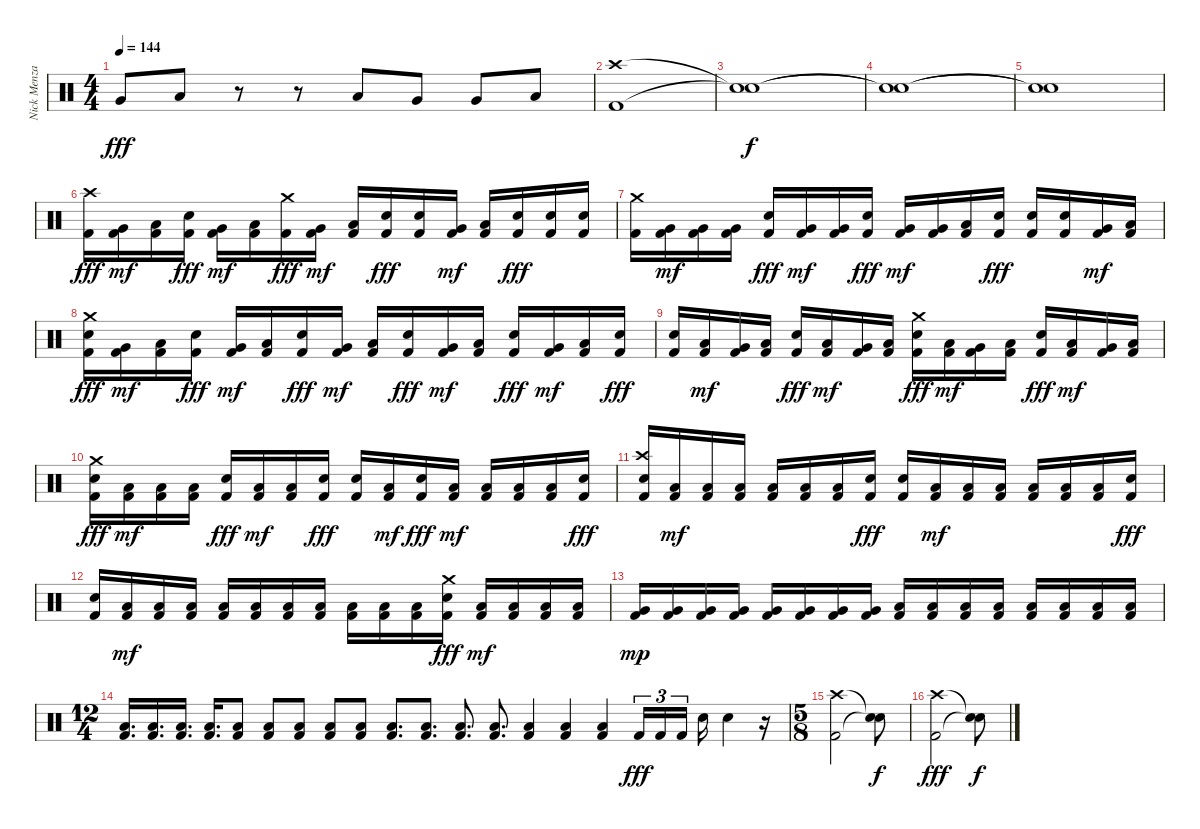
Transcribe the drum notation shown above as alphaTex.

\track ("Nick Menza" "Nick Menza") {instrument percussion}
\staff {score}
\articulation defaults
\ts (4 4)
\tempo 144
\clef neutral
\ks c "Very Low Tom (hit)".8{dy fff} "Low Floor Tom (hit)".8
r.8 r.8 "Low Tom (hit)".8 "Very Low Tom (hit)".8 "Very Low Tom (hit)".8 "Low Floor Tom (hit)".8 |
("Kick (hit) 2" "Crash high (hit)").1 |
("Snare (hit)"{t} "Snare (hit)"{t}).1{dy f} |
("Snare (hit)"{t} "Snare (hit)"{t}).1 |
("Snare (hit)"{t} "Snare (hit)"{t}).1 |
("Kick (hit) 2" "Crash high (hit)").16{dy fff} ("Kick (hit) 2" "Very Low Tom (hit)").16{dy mf} ("Kick (hit) 2" "Low Floor Tom (hit)").16 ("Kick (hit) 2" "Electric Snare (hit)").16{dy fff} ("Kick (hit) 2" "Very Low Tom (hit)").16{dy mf} ("Kick (hit) 2" "Low Floor Tom (hit)").16 ("Kick (hit) 2" "Crash medium (hit)").16{dy fff} ("Kick (hit) 2" "Very Low Tom (hit)").16{dy mf} ("Kick (hit) 2" "Low Floor Tom (hit)").16 ("Kick (hit) 2" "Electric Snare (hit)").16{dy fff} ("Kick (hit) 2" "Electric Snare (hit)").16 ("Kick (hit) 2" "Very Low Tom (hit)").16{dy mf} ("Kick (hit) 2" "Low Floor Tom (hit)").16 ("Kick (hit) 2" "Electric Snare (hit)").16{dy fff} ("Kick (hit) 2" "Electric Snare (hit)").16 ("Kick (hit) 2" "Electric Snare (hit)").16 |
("Kick (hit) 2" "Crash medium (hit)").16 ("Kick (hit) 2" "Very Low Tom (hit)").16{dy mf} ("Kick (hit) 2" "Very Low Tom (hit)").16 ("Kick (hit) 2" "Very Low Tom (hit)").16 ("Kick (hit) 2" "Electric Snare (hit)").16{dy fff} ("Kick (hit) 2" "Very Low Tom (hit)").16{dy mf} ("Kick (hit) 2" "Very Low Tom (hit)").16 ("Kick (hit) 2" "Electric Snare (hit)").16{dy fff} ("Kick (hit) 2" "Very Low Tom (hit)").16{dy mf} ("Kick (hit) 2" "Very Low Tom (hit)").16 ("Kick (hit) 2" "Low Floor Tom (hit)").16 ("Kick (hit) 2" "Electric Snare (hit)").16{dy fff} ("Kick (hit) 2" "Electric Snare (hit)").16 ("Kick (hit) 2" "Electric Snare (hit)").16 ("Kick (hit) 2" "Very Low Tom (hit)").16{dy mf} ("Kick (hit) 2" "Low Floor Tom (hit)").16 |
("Kick (hit) 2" "Electric Snare (hit)" "Crash medium (hit)").16{dy fff} ("Kick (hit) 2" "Very Low Tom (hit)").16{dy mf} ("Kick (hit) 2" "Low Floor Tom (hit)").16 ("Kick (hit) 2" "Electric Snare (hit)").16{dy fff} ("Kick (hit) 2" "Very Low Tom (hit)").16{dy mf} ("Kick (hit) 2" "Low Floor Tom (hit)").16 ("Kick (hit) 2" "Electric Snare (hit)").16{dy fff} ("Kick (hit) 2" "Very Low Tom (hit)").16{dy mf} ("Kick (hit) 2" "Low Floor Tom (hit)").16 ("Kick (hit) 2" "Electric Snare (hit)").16{dy fff} ("Kick (hit) 2" "Very Low Tom (hit)").16{dy mf} ("Kick (hit) 2" "Low Floor Tom (hit)").16 ("Kick (hit) 2" "Electric Snare (hit)").16{dy fff} ("Kick (hit) 2" "Very Low Tom (hit)").16{dy mf} ("Kick (hit) 2" "Low Floor Tom (hit)").16 ("Kick (hit) 2" "Electric Snare (hit)").16{dy fff} |
("Kick (hit) 2" "Electric Snare (hit)").16 ("Kick (hit) 2" "Low Tom (hit)").16{dy mf} ("Kick (hit) 2" "Very Low Tom (hit)").16 ("Kick (hit) 2" "Low Floor Tom (hit)").16 ("Kick (hit) 2" "Electric Snare (hit)").16{dy fff} ("Kick (hit) 2" "Low Tom (hit)").16{dy mf} ("Kick (hit) 2" "Very Low Tom (hit)").16 ("Kick (hit) 2" "Low Floor Tom (hit)").16 ("Kick (hit) 2" "Electric Snare (hit)" "Crash medium (hit)").16{dy fff} ("Kick (hit) 2" "Low Tom (hit)").16{dy mf} ("Kick (hit) 2" "Very Low Tom (hit)").16 ("Kick (hit) 2" "Low Floor Tom (hit)").16 ("Kick (hit) 2" "Electric Snare (hit)").16{dy fff} ("Kick (hit) 2" "Low Tom (hit)").16{dy mf} ("Kick (hit) 2" "Very Low Tom (hit)").16 ("Kick (hit) 2" "Low Floor Tom (hit)").16 |
("Kick (hit) 2" "Electric Snare (hit)" "Crash medium (hit)").16{dy fff} ("Kick (hit) 2" "Low Floor Tom (hit)").16{dy mf} ("Kick (hit) 2" "Low Floor Tom (hit)").16 ("Kick (hit) 2" "Low Floor Tom (hit)").16 ("Kick (hit) 2" "Electric Snare (hit)").16{dy fff} ("Kick (hit) 2" "Low Floor Tom (hit)").16{dy mf} ("Kick (hit) 2" "Low Floor Tom (hit)").16 ("Kick (hit) 2" "Electric Snare (hit)").16{dy fff} ("Kick (hit) 2" "Electric Snare (hit)").16 ("Kick (hit) 2" "Low Floor Tom (hit)").16{dy mf} ("Kick (hit) 2" "Electric Snare (hit)").16{dy fff} ("Kick (hit) 2" "Low Floor Tom (hit)").16{dy mf} ("Kick (hit) 2" "Low Floor Tom (hit)").16 ("Kick (hit) 2" "Low Floor Tom (hit)").16 ("Kick (hit) 2" "Low Floor Tom (hit)").16 ("Kick (hit) 2" "Electric Snare (hit)").16{dy fff} |
("Kick (hit) 2" "Electric Snare (hit)" "Crash high (hit)").16 ("Kick (hit) 2" "Low Floor Tom (hit)").16{dy mf} ("Kick (hit) 2" "Low Floor Tom (hit)").16 ("Kick (hit) 2" "Low Floor Tom (hit)").16 ("Kick (hit) 2" "Low Floor Tom (hit)").16 ("Kick (hit) 2" "Low Floor Tom (hit)").16 ("Kick (hit) 2" "Low Floor Tom (hit)").16 ("Kick (hit) 2" "Electric Snare (hit)").16{dy fff} ("Kick (hit) 2" "Electric Snare (hit)").16 ("Kick (hit) 2" "Low Floor Tom (hit)").16{dy mf} ("Kick (hit) 2" "Low Floor Tom (hit)").16 ("Kick (hit) 2" "Low Floor Tom (hit)").16 ("Kick (hit) 2" "Low Floor Tom (hit)").16 ("Kick (hit) 2" "Low Floor Tom (hit)").16 ("Kick (hit) 2" "Low Floor Tom (hit)").16 ("Kick (hit) 2" "Electric Snare (hit)").16{dy fff} |
("Kick (hit) 2" "Electric Snare (hit)").16 ("Kick (hit) 2" "Low Floor Tom (hit)").16{dy mf} ("Kick (hit) 2" "Low Floor Tom (hit)").16 ("Kick (hit) 2" "Low Floor Tom (hit)").16 ("Kick (hit) 2" "Low Floor Tom (hit)").16 ("Kick (hit) 2" "Low Floor Tom (hit)").16 ("Kick (hit) 2" "Low Floor Tom (hit)").16 ("Kick (hit) 2" "Low Floor Tom (hit)").16 ("Kick (hit) 2" "Low Floor Tom (hit)").16 ("Kick (hit) 2" "Low Floor Tom (hit)").16 ("Kick (hit) 2" "Low Floor Tom (hit)").16 ("Kick (hit) 2" "Electric Snare (hit)" "Crash medium (hit)").16{dy fff} ("Kick (hit) 2" "Low Floor Tom (hit)").16{dy mf} ("Kick (hit) 2" "Low Floor Tom (hit)").16 ("Kick (hit) 2" "Low Floor Tom (hit)").16 ("Kick (hit) 2" "Low Floor Tom (hit)").16 |
("Kick (hit) 2" "Very Low Tom (hit)").16{dy mp} ("Kick (hit) 2" "Very Low Tom (hit)").16 ("Kick (hit) 2" "Very Low Tom (hit)").16 ("Kick (hit) 2" "Very Low Tom (hit)").16 ("Kick (hit) 2" "Very Low Tom (hit)").16 ("Kick (hit) 2" "Very Low Tom (hit)").16 ("Kick (hit) 2" "Very Low Tom (hit)").16 ("Kick (hit) 2" "Very Low Tom (hit)").16 ("Kick (hit) 2" "Low Floor Tom (hit)").16 ("Kick (hit) 2" "Low Floor Tom (hit)").16 ("Kick (hit) 2" "Low Floor Tom (hit)").16 ("Kick (hit) 2" "Low Floor Tom (hit)").16 ("Kick (hit) 2" "Low Floor Tom (hit)").16 ("Kick (hit) 2" "Low Floor Tom (hit)").16 ("Kick (hit) 2" "Low Floor Tom (hit)").16 ("Kick (hit) 2" "Low Floor Tom (hit)").16 |
\ts (12 4)
("Kick (hit) 2" "Low Floor Tom (hit)").16{d} ("Kick (hit) 2" "Low Floor Tom (hit)").16{d} ("Kick (hit) 2" "Low Floor Tom (hit)").16{d} ("Kick (hit) 2" "Low Floor Tom (hit)").16{d} ("Kick (hit) 2" "Low Floor Tom (hit)").8 ("Kick (hit) 2" "Low Floor Tom (hit)").8 ("Kick (hit) 2" "Low Floor Tom (hit)").8 ("Kick (hit) 2" "Low Floor Tom (hit)").8 ("Kick (hit) 2" "Low Floor Tom (hit)").8 ("Kick (hit) 2" "Low Floor Tom (hit)").8{d} ("Kick (hit) 2" "Low Floor Tom (hit)").8{d} ("Kick (hit) 2" "Low Floor Tom (hit)").8{d} ("Kick (hit) 2" "Low Floor Tom (hit)").8{d} ("Kick (hit) 2" "Low Floor Tom (hit)").4 ("Kick (hit) 2" "Low Floor Tom (hit)").4 ("Kick (hit) 2" "Low Floor Tom (hit)").4 "Kick (hit) 2".16{tu (3 2) dy fff} "Kick (hit) 2".16{tu (3 2)} "Kick (hit) 2".16{tu (3 2)} "Electric Snare (hit)".16 "Electric Snare (hit)".4 r.16 |
\ts (5 8)
("Kick (hit) 2" "Crash high (hit)").2 ("Snare (hit)"{t} "Snare (hit)"{t}).8{dy f} |
("Kick (hit) 2" "Crash high (hit)").2{dy fff volume 12} ("Snare (hit)"{t} "Snare (hit)"{t}).8{dy f}
